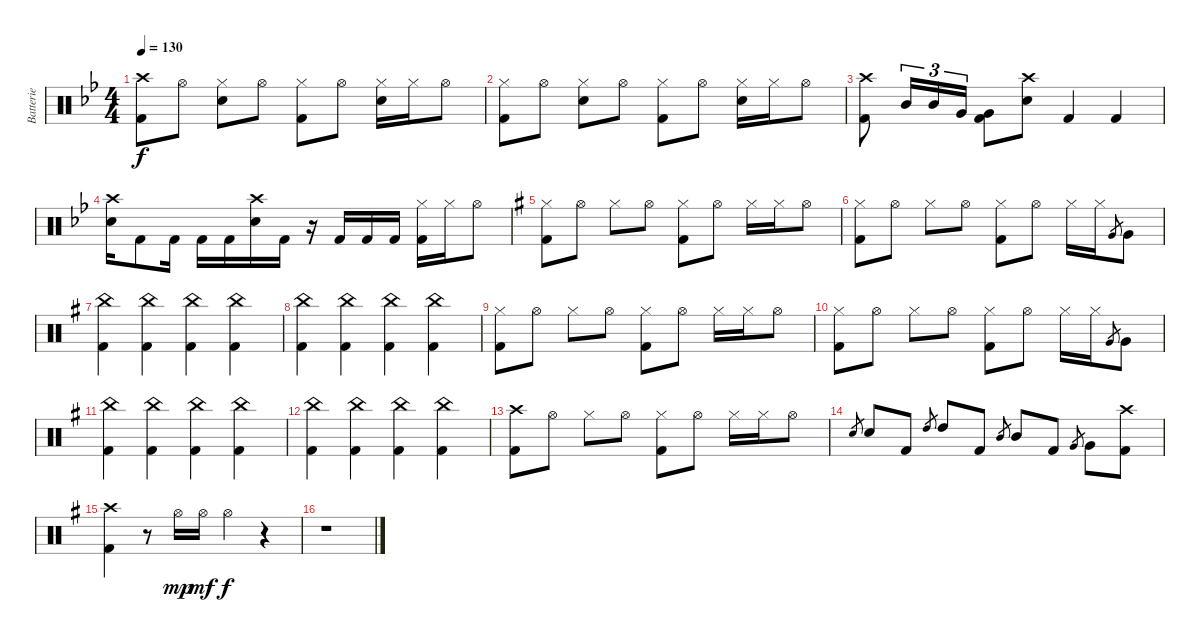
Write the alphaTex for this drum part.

\track ("Batterie" "Batterie") {instrument percussion}
\staff {score}
\articulation defaults
\ts (4 4)
\tempo 130
\clef neutral
\ks bb
("Crash high (hit)" "Kick (hit) 2").8{dy f} "Hi-Hat (open)".8 ("Hi-Hat (closed)" "Snare (hit) 2").8 "Hi-Hat (open)".8 ("Hi-Hat (closed)" "Kick (hit) 2").8 "Hi-Hat (open)".8 ("Hi-Hat (closed)" "Snare (hit) 2").16 "Hi-Hat (closed)".16 "Hi-Hat (open)".8 |
("Hi-Hat (closed)" "Kick (hit) 2").8 "Hi-Hat (open)".8 ("Hi-Hat (closed)" "Snare (hit) 2").8 "Hi-Hat (open)".8 ("Hi-Hat (closed)" "Kick (hit) 2").8 "Hi-Hat (open)".8 ("Hi-Hat (closed)" "Snare (hit) 2").16 "Hi-Hat (closed)".16 "Hi-Hat (open)".8 |
("Crash high (hit)" "Kick (hit) 2").8 "Mid Tom (hit)".16{tu (3 2)} "Mid Tom (hit)".16{tu (3 2)} "Very Low Tom (hit)".16{tu (3 2)} ("Very Low Tom (hit)" "Kick (hit) 2").8 ("Crash high (hit)" "Snare (hit) 2").8 "Kick (hit) 2".4 "Kick (hit) 2".4 |
("Crash high (hit)" "Snare (hit) 2").16 "Kick (hit) 2".8 "Kick (hit) 2".16 "Kick (hit) 2".16 "Kick (hit) 2".16 ("Crash high (hit)" "Snare (hit) 2").16 "Kick (hit) 2".16 r.16 "Kick (hit) 2".16 "Kick (hit) 2".16 "Kick (hit) 2".16 ("Hi-Hat (closed)" "Kick (hit) 2").16 "Hi-Hat (closed)".16 "Hi-Hat (open)".8 |
\ks g
("Hi-Hat (closed)" "Kick (hit) 2").8 "Hi-Hat (open)".8 "Hi-Hat (closed)".8 "Hi-Hat (open)".8 ("Hi-Hat (closed)" "Kick (hit) 2").8 "Hi-Hat (open)".8 "Hi-Hat (closed)".16 "Hi-Hat (closed)".16 "Hi-Hat (open)".8 |
("Hi-Hat (closed)" "Kick (hit) 2").8 "Hi-Hat (open)".8 "Hi-Hat (closed)".8 "Hi-Hat (open)".8 ("Hi-Hat (closed)" "Kick (hit) 2").8 "Hi-Hat (open)".8 "Hi-Hat (closed)".16 "Hi-Hat (closed)".16 "Very Low Tom (hit)".8{gr} "Very Low Tom (hit)".8 |
("China (hit)" "Kick (hit) 2").4 ("China (hit)" "Kick (hit) 2").4 ("China (hit)" "Kick (hit) 2").4 ("China (hit)" "Kick (hit) 2").4 |
("China (hit)" "Kick (hit) 2").4 ("China (hit)" "Kick (hit) 2").4 ("China (hit)" "Kick (hit) 2").4 ("China (hit)" "Kick (hit) 2").4 |
("Hi-Hat (closed)" "Kick (hit) 2").8 "Hi-Hat (open)".8 "Hi-Hat (closed)".8 "Hi-Hat (open)".8 ("Hi-Hat (closed)" "Kick (hit) 2").8 "Hi-Hat (open)".8 "Hi-Hat (closed)".16 "Hi-Hat (closed)".16 "Hi-Hat (open)".8 |
("Hi-Hat (closed)" "Kick (hit) 2").8 "Hi-Hat (open)".8 "Hi-Hat (closed)".8 "Hi-Hat (open)".8 ("Hi-Hat (closed)" "Kick (hit) 2").8 "Hi-Hat (open)".8 "Hi-Hat (closed)".16 "Hi-Hat (closed)".16 "Very Low Tom (hit)".8{gr} "Very Low Tom (hit)".8 |
("China (hit)" "Kick (hit) 2").4 ("China (hit)" "Kick (hit) 2").4 ("China (hit)" "Kick (hit) 2").4 ("China (hit)" "Kick (hit) 2").4 |
("China (hit)" "Kick (hit) 2").4 ("China (hit)" "Kick (hit) 2").4 ("China (hit)" "Kick (hit) 2").4 ("China (hit)" "Kick (hit) 2").4 |
("Crash high (hit)" "Kick (hit) 2").8 "Hi-Hat (open)".8 "Hi-Hat (closed)".8 "Hi-Hat (open)".8 ("Hi-Hat (closed)" "Kick (hit) 2").8 "Hi-Hat (open)".8 "Hi-Hat (closed)".16 "Hi-Hat (closed)".16 "Hi-Hat (open)".8 |
"Snare (hit) 2".8{gr} "Snare (hit) 2".8 "Kick (hit) 2".8 "High Tom (hit)".8{gr} "High Tom (hit)".8 "Kick (hit) 2".8 "Mid Tom (hit)".8{gr} "Mid Tom (hit)".8 "Kick (hit) 2".8 "Very Low Tom (hit)".8{gr} "Very Low Tom (hit)".8 ("Crash high (hit)" "Kick (hit) 2").8 |
("Crash high (hit)" "Kick (hit) 2").4 r.8 "Hi-Hat (open)".16{dy mp} "Hi-Hat (open)".16{dy mf} "Hi-Hat (open)".4{dy f} r.4 |
r.1
